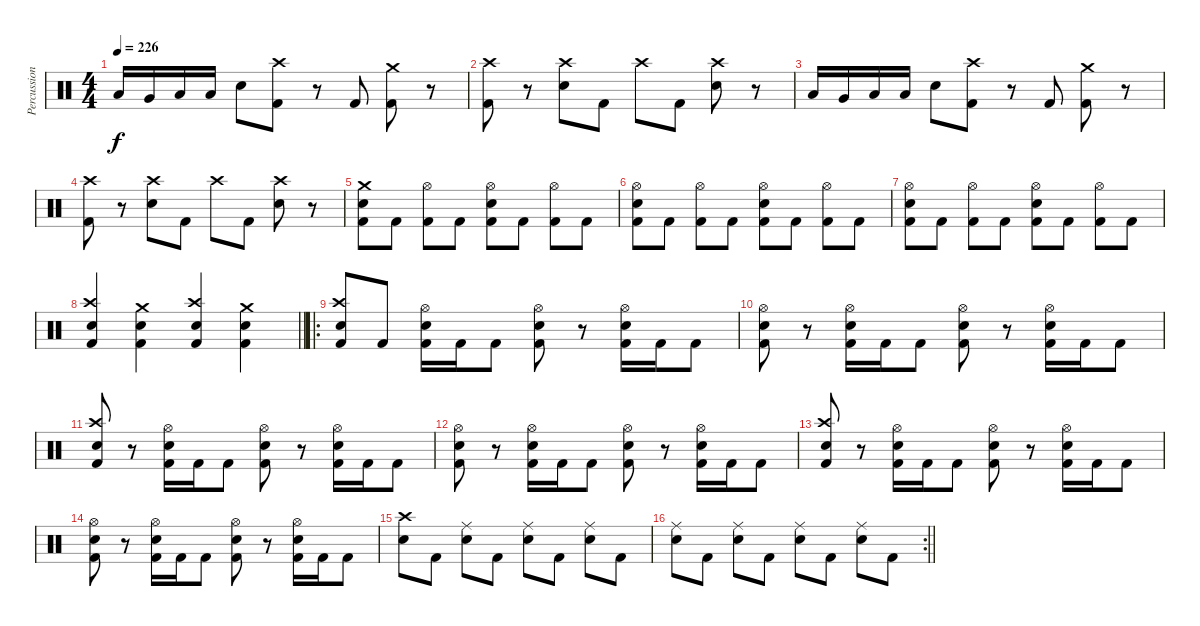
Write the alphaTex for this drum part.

\track ("Percussion" "Percussion") {instrument percussion}
\staff {score}
\articulation defaults
\ts (4 4)
\tempo 226
\clef neutral
\ks c "Low Tom (hit)".16{dy f} "Very Low Tom (hit)".16 "Low Floor Tom (hit)".16 "Low Floor Tom (hit)".16 "Snare (hit) 2".8
("Crash high (hit)" "Kick (hit) 2").8 r.8 "Kick (hit) 2".8 ("Crash medium (hit)" "Kick (hit) 2").8 r.8 |
("Crash high (hit)" "Kick (hit) 2").8 r.8 ("Crash high (hit)" "Snare (hit) 2").8 "Kick (hit) 2".8 "Crash high (hit)".8 "Kick (hit) 2".8 ("Crash high (hit)" "Snare (hit) 2").8 r.8 |
"Low Tom (hit)".16 "Very Low Tom (hit)".16 "Low Floor Tom (hit)".16 "Low Floor Tom (hit)".16 "Snare (hit) 2".8 ("Crash high (hit)" "Kick (hit) 2").8 r.8 "Kick (hit) 2".8 ("Crash medium (hit)" "Kick (hit) 2").8 r.8 |
("Crash high (hit)" "Kick (hit) 2").8 r.8 ("Crash high (hit)" "Snare (hit) 2").8 "Kick (hit) 2".8 "Crash high (hit)".8 "Kick (hit) 2".8 ("Crash high (hit)" "Snare (hit) 2").8 r.8 |
("Crash medium (hit)" "Snare (hit) 2" "Kick (hit) 2").8 "Kick (hit) 2".8 ("Hi-Hat (open)" "Kick (hit) 2").8 "Kick (hit) 2".8 ("Hi-Hat (open)" "Snare (hit) 2" "Kick (hit) 2").8 "Kick (hit) 2".8 ("Hi-Hat (open)" "Kick (hit) 2").8 "Kick (hit) 2".8 |
("Hi-Hat (open)" "Snare (hit) 2" "Kick (hit) 2").8 "Kick (hit) 2".8 ("Hi-Hat (open)" "Kick (hit) 2").8 "Kick (hit) 2".8 ("Hi-Hat (open)" "Snare (hit) 2" "Kick (hit) 2").8 "Kick (hit) 2".8 ("Hi-Hat (open)" "Kick (hit) 2").8 "Kick (hit) 2".8 |
("Hi-Hat (open)" "Snare (hit) 2" "Kick (hit) 2").8 "Kick (hit) 2".8 ("Hi-Hat (open)" "Kick (hit) 2").8 "Kick (hit) 2".8 ("Hi-Hat (open)" "Snare (hit) 2" "Kick (hit) 2").8 "Kick (hit) 2".8 ("Hi-Hat (open)" "Kick (hit) 2").8 "Kick (hit) 2".8 |
\barLineRight lightlight
("Crash high (hit)" "Snare (hit) 2" "Kick (hit) 2").4 ("Crash medium (hit)" "Snare (hit) 2" "Kick (hit) 2").4 ("Crash high (hit)" "Snare (hit) 2" "Kick (hit) 2").4 ("Crash medium (hit)" "Snare (hit) 2" "Kick (hit) 2").4 |
\ro
\section ("" "")
("Crash high (hit)" "Snare (hit) 2" "Kick (hit) 2").8 "Kick (hit) 2".8 ("Hi-Hat (open)" "Snare (hit) 2" "Kick (hit) 2").16 "Kick (hit) 2".16 "Kick (hit) 2".8 ("Hi-Hat (open)" "Snare (hit) 2" "Kick (hit) 2").8 r.8 ("Hi-Hat (open)" "Snare (hit) 2" "Kick (hit) 2").16 "Kick (hit) 2".16 "Kick (hit) 2".8 |
("Hi-Hat (open)" "Snare (hit) 2" "Kick (hit) 2").8 r.8 ("Hi-Hat (open)" "Snare (hit) 2" "Kick (hit) 2").16 "Kick (hit) 2".16 "Kick (hit) 2".8 ("Hi-Hat (open)" "Snare (hit) 2" "Kick (hit) 2").8 r.8 ("Hi-Hat (open)" "Snare (hit) 2" "Kick (hit) 2").16 "Kick (hit) 2".16 "Kick (hit) 2".8 |
("Crash high (hit)" "Snare (hit) 2" "Kick (hit) 2").8 r.8 ("Hi-Hat (open)" "Snare (hit) 2" "Kick (hit) 2").16 "Kick (hit) 2".16 "Kick (hit) 2".8 ("Hi-Hat (open)" "Snare (hit) 2" "Kick (hit) 2").8 r.8 ("Hi-Hat (open)" "Snare (hit) 2" "Kick (hit) 2").16 "Kick (hit) 2".16 "Kick (hit) 2".8 |
("Hi-Hat (open)" "Snare (hit) 2" "Kick (hit) 2").8 r.8 ("Hi-Hat (open)" "Snare (hit) 2" "Kick (hit) 2").16 "Kick (hit) 2".16 "Kick (hit) 2".8 ("Hi-Hat (open)" "Snare (hit) 2" "Kick (hit) 2").8 r.8 ("Hi-Hat (open)" "Snare (hit) 2" "Kick (hit) 2").16 "Kick (hit) 2".16 "Kick (hit) 2".8 |
("Crash high (hit)" "Snare (hit) 2" "Kick (hit) 2").8 r.8 ("Hi-Hat (open)" "Snare (hit) 2" "Kick (hit) 2").16 "Kick (hit) 2".16 "Kick (hit) 2".8 ("Hi-Hat (open)" "Snare (hit) 2" "Kick (hit) 2").8 r.8 ("Hi-Hat (open)" "Snare (hit) 2" "Kick (hit) 2").16 "Kick (hit) 2".16 "Kick (hit) 2".8 |
("Hi-Hat (open)" "Snare (hit) 2" "Kick (hit) 2").8 r.8 ("Hi-Hat (open)" "Snare (hit) 2" "Kick (hit) 2").16 "Kick (hit) 2".16 "Kick (hit) 2".8 ("Hi-Hat (open)" "Snare (hit) 2" "Kick (hit) 2").8 r.8 ("Hi-Hat (open)" "Snare (hit) 2" "Kick (hit) 2").16 "Kick (hit) 2".16 "Kick (hit) 2".8 |
("Crash high (hit)" "Snare (hit) 2").8 "Kick (hit) 2".8 ("Ride (middle)" "Snare (hit) 2").8 "Kick (hit) 2".8 ("Ride (middle)" "Snare (hit) 2").8 "Kick (hit) 2".8 ("Ride (middle)" "Snare (hit) 2").8 "Kick (hit) 2".8 |
\rc 2
\barLineRight lightlight
("Ride (middle)" "Snare (hit) 2").8 "Kick (hit) 2".8 ("Ride (middle)" "Snare (hit) 2").8 "Kick (hit) 2".8 ("Ride (middle)" "Snare (hit) 2").8 "Kick (hit) 2".8 ("Ride (middle)" "Snare (hit) 2").8 "Kick (hit) 2".8
